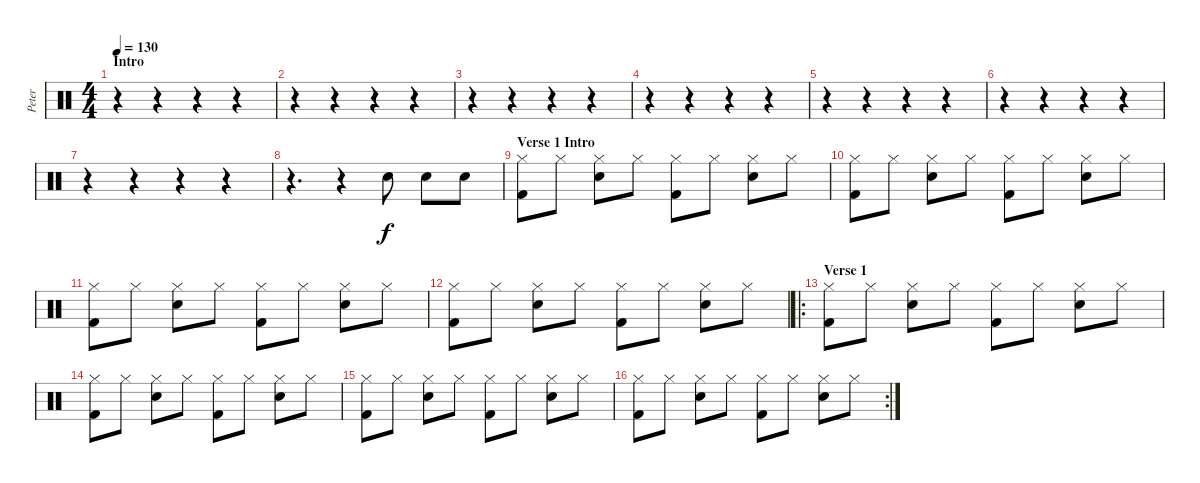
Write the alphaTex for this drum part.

\track ("Peter" "Peter") {instrument percussion}
\staff {score}
\articulation defaults
\ts (4 4)
\section ("" "Intro")
\tempo 130
\clef neutral
\ks c
r.4{dy f} r.4 r.4 r.4 |
r.4 r.4 r.4 r.4 |
r.4 r.4 r.4 r.4 |
r.4 r.4 r.4 r.4 |
r.4 r.4 r.4 r.4 |
r.4 r.4 r.4 r.4 |
r.4 r.4 r.4 r.4 |
r.4{d} r.4 "Electric Snare (hit)".8 "Electric Snare (hit)".8 "Electric Snare (hit)".8 |
\section ("" "Verse 1 Intro")
("Hi-Hat (closed)" "Kick (hit) 2").8 "Hi-Hat (closed)".8 ("Hi-Hat (closed)" "Electric Snare (hit)").8 "Hi-Hat (closed)".8 ("Hi-Hat (closed)" "Kick (hit) 2").8 "Hi-Hat (closed)".8 ("Hi-Hat (closed)" "Electric Snare (hit)").8 "Hi-Hat (closed)".8 |
("Hi-Hat (closed)" "Kick (hit) 2").8 "Hi-Hat (closed)".8 ("Hi-Hat (closed)" "Electric Snare (hit)").8 "Hi-Hat (closed)".8 ("Hi-Hat (closed)" "Kick (hit) 2").8 "Hi-Hat (closed)".8 ("Hi-Hat (closed)" "Electric Snare (hit)").8 "Hi-Hat (closed)".8 |
("Hi-Hat (closed)" "Kick (hit) 2").8 "Hi-Hat (closed)".8 ("Hi-Hat (closed)" "Electric Snare (hit)").8 "Hi-Hat (closed)".8 ("Hi-Hat (closed)" "Kick (hit) 2").8 "Hi-Hat (closed)".8 ("Hi-Hat (closed)" "Electric Snare (hit)").8 "Hi-Hat (closed)".8 |
("Hi-Hat (closed)" "Kick (hit) 2").8 "Hi-Hat (closed)".8 ("Hi-Hat (closed)" "Electric Snare (hit)").8 "Hi-Hat (closed)".8 ("Hi-Hat (closed)" "Kick (hit) 2").8 "Hi-Hat (closed)".8 ("Hi-Hat (closed)" "Electric Snare (hit)").8 "Hi-Hat (closed)".8 |
\ro
\section ("" "Verse 1")
("Hi-Hat (closed)" "Kick (hit) 2").8 "Hi-Hat (closed)".8 ("Hi-Hat (closed)" "Electric Snare (hit)").8 "Hi-Hat (closed)".8 ("Hi-Hat (closed)" "Kick (hit) 2").8 "Hi-Hat (closed)".8 ("Hi-Hat (closed)" "Electric Snare (hit)").8 "Hi-Hat (closed)".8 |
("Hi-Hat (closed)" "Kick (hit) 2").8 "Hi-Hat (closed)".8 ("Hi-Hat (closed)" "Electric Snare (hit)").8 "Hi-Hat (closed)".8 ("Hi-Hat (closed)" "Kick (hit) 2").8 "Hi-Hat (closed)".8 ("Hi-Hat (closed)" "Electric Snare (hit)").8 "Hi-Hat (closed)".8 |
("Hi-Hat (closed)" "Kick (hit) 2").8 "Hi-Hat (closed)".8 ("Hi-Hat (closed)" "Electric Snare (hit)").8 "Hi-Hat (closed)".8 ("Hi-Hat (closed)" "Kick (hit) 2").8 "Hi-Hat (closed)".8 ("Hi-Hat (closed)" "Electric Snare (hit)").8 "Hi-Hat (closed)".8 |
\rc 2
("Hi-Hat (closed)" "Kick (hit) 2").8 "Hi-Hat (closed)".8 ("Hi-Hat (closed)" "Electric Snare (hit)").8 "Hi-Hat (closed)".8 ("Hi-Hat (closed)" "Kick (hit) 2").8 "Hi-Hat (closed)".8 ("Hi-Hat (closed)" "Electric Snare (hit)").8 "Hi-Hat (closed)".8
